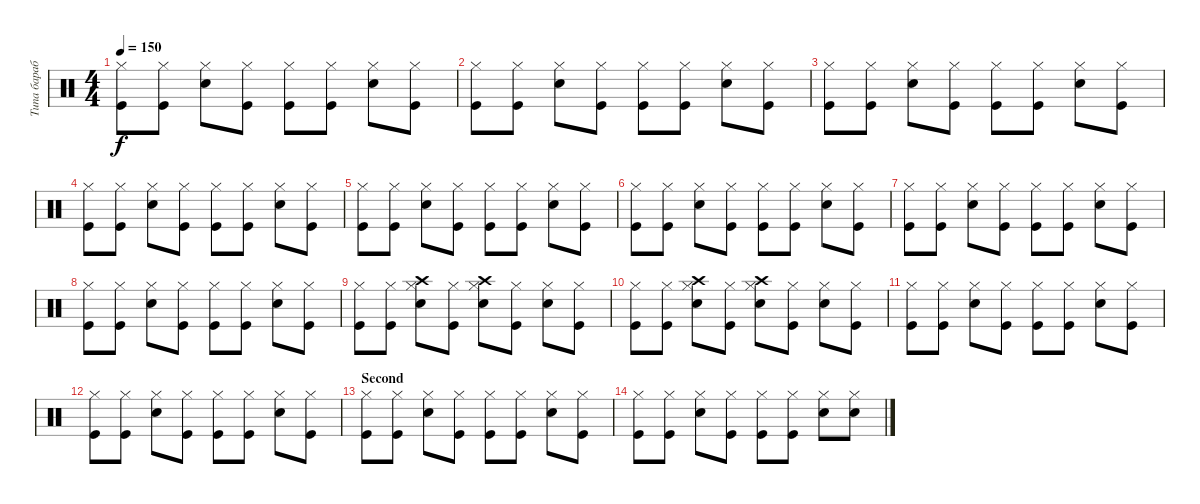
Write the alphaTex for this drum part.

\track ("Типа барабанщик" "Типа бараб") {instrument percussion}
\staff {score}
\articulation defaults
\ts (4 4)
\tempo 150
\clef neutral
\ks c
("Hi-Hat (closed)" "Kick (hit)").8{dy f} ("Hi-Hat (closed)" "Kick (hit)").8 ("Hi-Hat (closed)" "Snare (hit) 2").8 ("Hi-Hat (closed)" "Kick (hit)").8 ("Hi-Hat (closed)" "Kick (hit)").8 ("Hi-Hat (closed)" "Kick (hit)").8 ("Hi-Hat (closed)" "Snare (hit) 2").8 ("Hi-Hat (closed)" "Kick (hit)").8 |
("Hi-Hat (closed)" "Kick (hit)").8 ("Hi-Hat (closed)" "Kick (hit)").8 ("Hi-Hat (closed)" "Snare (hit) 2").8 ("Hi-Hat (closed)" "Kick (hit)").8 ("Hi-Hat (closed)" "Kick (hit)").8 ("Hi-Hat (closed)" "Kick (hit)").8 ("Hi-Hat (closed)" "Snare (hit) 2").8 ("Hi-Hat (closed)" "Kick (hit)").8 |
("Hi-Hat (closed)" "Kick (hit)").8 ("Hi-Hat (closed)" "Kick (hit)").8 ("Hi-Hat (closed)" "Snare (hit) 2").8 ("Hi-Hat (closed)" "Kick (hit)").8 ("Hi-Hat (closed)" "Kick (hit)").8 ("Hi-Hat (closed)" "Kick (hit)").8 ("Hi-Hat (closed)" "Snare (hit) 2").8 ("Hi-Hat (closed)" "Kick (hit)").8 |
("Hi-Hat (closed)" "Kick (hit)").8 ("Hi-Hat (closed)" "Kick (hit)").8 ("Hi-Hat (closed)" "Snare (hit) 2").8 ("Hi-Hat (closed)" "Kick (hit)").8 ("Hi-Hat (closed)" "Kick (hit)").8 ("Hi-Hat (closed)" "Kick (hit)").8 ("Hi-Hat (closed)" "Snare (hit) 2").8 ("Hi-Hat (closed)" "Kick (hit)").8 |
("Hi-Hat (closed)" "Kick (hit)").8 ("Hi-Hat (closed)" "Kick (hit)").8 ("Hi-Hat (closed)" "Snare (hit) 2").8 ("Hi-Hat (closed)" "Kick (hit)").8 ("Hi-Hat (closed)" "Kick (hit)").8 ("Hi-Hat (closed)" "Kick (hit)").8 ("Hi-Hat (closed)" "Snare (hit) 2").8 ("Hi-Hat (closed)" "Kick (hit)").8 |
("Hi-Hat (closed)" "Kick (hit)").8 ("Hi-Hat (closed)" "Kick (hit)").8 ("Hi-Hat (closed)" "Snare (hit) 2").8 ("Hi-Hat (closed)" "Kick (hit)").8 ("Hi-Hat (closed)" "Kick (hit)").8 ("Hi-Hat (closed)" "Kick (hit)").8 ("Hi-Hat (closed)" "Snare (hit) 2").8 ("Hi-Hat (closed)" "Kick (hit)").8 |
("Hi-Hat (closed)" "Kick (hit)").8 ("Hi-Hat (closed)" "Kick (hit)").8 ("Hi-Hat (closed)" "Snare (hit) 2").8 ("Hi-Hat (closed)" "Kick (hit)").8 ("Hi-Hat (closed)" "Kick (hit)").8 ("Hi-Hat (closed)" "Kick (hit)").8 ("Hi-Hat (closed)" "Snare (hit) 2").8 ("Hi-Hat (closed)" "Kick (hit)").8 |
("Hi-Hat (closed)" "Kick (hit)").8 ("Hi-Hat (closed)" "Kick (hit)").8 ("Hi-Hat (closed)" "Snare (hit) 2").8 ("Hi-Hat (closed)" "Kick (hit)").8 ("Hi-Hat (closed)" "Kick (hit)").8 ("Hi-Hat (closed)" "Kick (hit)").8 ("Hi-Hat (closed)" "Snare (hit) 2").8 ("Hi-Hat (closed)" "Kick (hit)").8 |
("Hi-Hat (closed)" "Kick (hit)").8 ("Hi-Hat (closed)" "Kick (hit)").8 ("Hi-Hat (closed)" "Snare (hit) 2" "Crash high (hit)").8 ("Hi-Hat (closed)" "Kick (hit)").8 ("Hi-Hat (closed)" "Snare (hit) 2" "Crash high (hit)").8 ("Hi-Hat (closed)" "Kick (hit)").8 ("Hi-Hat (closed)" "Snare (hit) 2").8 ("Hi-Hat (closed)" "Kick (hit)").8 |
("Hi-Hat (closed)" "Kick (hit)").8 ("Hi-Hat (closed)" "Kick (hit)").8 ("Hi-Hat (closed)" "Snare (hit) 2" "Crash high (hit)").8 ("Hi-Hat (closed)" "Kick (hit)").8 ("Hi-Hat (closed)" "Snare (hit) 2" "Crash high (hit)").8 ("Hi-Hat (closed)" "Kick (hit)").8 ("Hi-Hat (closed)" "Snare (hit) 2").8 ("Hi-Hat (closed)" "Kick (hit)").8 |
("Hi-Hat (closed)" "Kick (hit)").8 ("Hi-Hat (closed)" "Kick (hit)").8 ("Hi-Hat (closed)" "Snare (hit) 2").8 ("Hi-Hat (closed)" "Kick (hit)").8 ("Hi-Hat (closed)" "Kick (hit)").8 ("Hi-Hat (closed)" "Kick (hit)").8 ("Hi-Hat (closed)" "Snare (hit) 2").8 ("Hi-Hat (closed)" "Kick (hit)").8 |
("Hi-Hat (closed)" "Kick (hit)").8 ("Hi-Hat (closed)" "Kick (hit)").8 ("Hi-Hat (closed)" "Snare (hit) 2").8 ("Hi-Hat (closed)" "Kick (hit)").8 ("Hi-Hat (closed)" "Kick (hit)").8 ("Hi-Hat (closed)" "Kick (hit)").8 ("Hi-Hat (closed)" "Snare (hit) 2").8 ("Hi-Hat (closed)" "Kick (hit)").8 |
\section ("" "Second")
("Hi-Hat (closed)" "Kick (hit)").8 ("Hi-Hat (closed)" "Kick (hit)").8 ("Hi-Hat (closed)" "Snare (hit) 2").8 ("Hi-Hat (closed)" "Kick (hit)").8 ("Hi-Hat (closed)" "Kick (hit)").8 ("Hi-Hat (closed)" "Kick (hit)").8 ("Hi-Hat (closed)" "Snare (hit) 2").8 ("Hi-Hat (closed)" "Kick (hit)").8 |
("Hi-Hat (closed)" "Kick (hit)").8 ("Hi-Hat (closed)" "Kick (hit)").8 ("Hi-Hat (closed)" "Snare (hit) 2").8 ("Hi-Hat (closed)" "Kick (hit)").8 ("Hi-Hat (closed)" "Kick (hit)").8 ("Hi-Hat (closed)" "Kick (hit)").8 ("Hi-Hat (closed)" "Snare (hit) 2").8 ("Hi-Hat (closed)" "Snare (hit) 2").8
